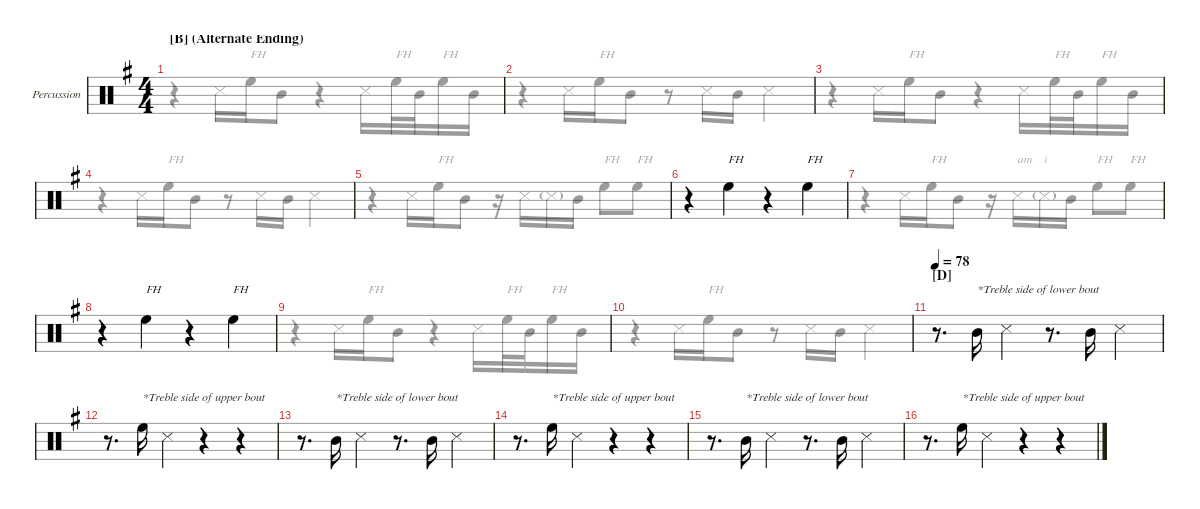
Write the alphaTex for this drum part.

\defaultSystemsLayout 4
\hideDynamics
\bracketExtendMode groupsimilarinstruments
\firstSystemTrackNameMode fullname
\otherSystemsTrackNameMode fullname
\firstSystemTrackNameOrientation horizontal
\otherSystemsTrackNameOrientation horizontal
\track ("Percussion" "Perc.") {instrument percussion}
\staff {score}
\articulation defaults
\voice
\ts (4 4)
\section ("B" "(Alternate Ending)")
\tempo (88 hide)
\clef neutral
\ks g
|
|
|
|
|
r.4 "High Floor Tom (hit)".4{txt "FH"} r.4 "High Floor Tom (hit)".4{txt "FH"} |
|
r.4 "High Floor Tom (hit)".4{txt "FH"} r.4 "High Floor Tom (hit)".4{txt "FH"} |
|
|
\section ("D" "")
\tempo 78
r.8{d} "Mid Tom (hit)".16{txt "*Treble side of lower bout"} "Snare (side stick) 3".4 r.8{d} "Mid Tom (hit)".16 "Snare (side stick) 3".4 |
r.8{d} "High Floor Tom (hit)".16{txt "*Treble side of upper bout"} "Snare (side stick) 3".4 r.4 r.4 |
r.8{d} "Mid Tom (hit)".16{txt "*Treble side of lower bout"} "Snare (side stick) 3".4 r.8{d} "Mid Tom (hit)".16 "Snare (side stick) 3".4 |
r.8{d} "High Floor Tom (hit)".16{txt "*Treble side of upper bout"} "Snare (side stick) 3".4 r.4 r.4 |
r.8{d} "Mid Tom (hit)".16{txt "*Treble side of lower bout"} "Snare (side stick) 3".4 r.8{d} "Mid Tom (hit)".16 "Snare (side stick) 3".4 |
r.8{d} "High Floor Tom (hit)".16{txt "*Treble side of upper bout"} "Snare (side stick) 3".4 r.4 r.4
\voice
\clef neutral
\ottava regular
\simile none
\ks g
r.4{dy mf} "Snare (side stick) 3".16 "High Floor Tom (hit)".16{txt "FH"} "Mid Tom (hit)".8 r.4 "Snare (side stick) 3".16 "High Floor Tom (hit)".32{txt "FH"} "Mid Tom (hit)".32 "High Floor Tom (hit)".16{txt "FH"} "Mid Tom (hit)".16 |
r.4 "Snare (side stick) 3".16 "High Floor Tom (hit)".16{txt "FH"} "Mid Tom (hit)".8 r.8 "Snare (side stick) 3".16 "Mid Tom (hit)".16 "Snare (side stick) 3".4 |
r.4 "Snare (side stick) 3".16 "High Floor Tom (hit)".16{txt "FH"} "Mid Tom (hit)".8 r.4 "Snare (side stick) 3".16 "High Floor Tom (hit)".32{txt "FH"} "Mid Tom (hit)".32 "High Floor Tom (hit)".16{txt "FH"} "Mid Tom (hit)".16 |
r.4 "Snare (side stick) 3".16 "High Floor Tom (hit)".16{txt "FH"} "Mid Tom (hit)".8 r.8 "Snare (side stick) 3".16 "Mid Tom (hit)".16 "Snare (side stick) 3".4 |
r.4 "Snare (side stick) 3".16 "High Floor Tom (hit)".16{txt "FH"} "Mid Tom (hit)".8 r.16 "Snare (side stick) 3".16 "Snare (side stick) 3"{g}.16 "Mid Tom (hit)".16 "High Floor Tom (hit)".8{txt "FH"} "High Floor Tom (hit)".8{txt "FH"} |
|
r.4 "Snare (side stick) 3".16 "High Floor Tom (hit)".16{txt "FH"} "Mid Tom (hit)".8 r.16 "Snare (side stick) 3".16{txt "am"} "Snare (side stick) 3"{g}.16{txt "i"} "Mid Tom (hit)".16 "High Floor Tom (hit)".8{txt "FH"} "High Floor Tom (hit)".8{txt "FH"} |
|
r.4 "Snare (side stick) 3".16 "High Floor Tom (hit)".16{txt "FH"} "Mid Tom (hit)".8 r.4 "Snare (side stick) 3".16 "High Floor Tom (hit)".32{txt "FH"} "Mid Tom (hit)".32 "High Floor Tom (hit)".16{txt "FH"} "Mid Tom (hit)".16 |
r.4 "Snare (side stick) 3".16{dy f} "High Floor Tom (hit)".16{txt "FH"} "Mid Tom (hit)".8 r.8 "Snare (side stick) 3".16 "Mid Tom (hit)".16 "Snare (side stick) 3".4 |
|
|
|
|
|
